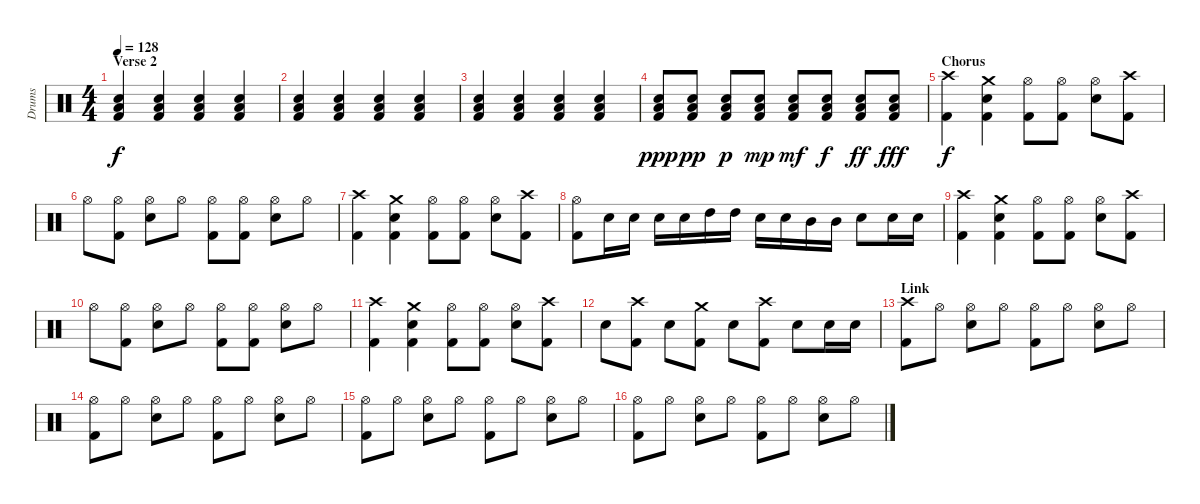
\track ("Drums" "Drums") {instrument percussion}
\staff {score}
\articulation defaults
\ts (4 4)
\section ("" "Verse 2")
\tempo 128
\clef neutral
\ks c
("Electric Snare (hit)" "Low Floor Tom (hit)" "Kick (hit) 2").4{dy f} ("Electric Snare (hit)" "Low Floor Tom (hit)" "Kick (hit) 2").4 ("Electric Snare (hit)" "Low Floor Tom (hit)" "Kick (hit) 2").4 ("Electric Snare (hit)" "Low Floor Tom (hit)" "Kick (hit) 2").4 |
("Electric Snare (hit)" "Low Floor Tom (hit)" "Kick (hit) 2").4 ("Electric Snare (hit)" "Low Floor Tom (hit)" "Kick (hit) 2").4 ("Electric Snare (hit)" "Low Floor Tom (hit)" "Kick (hit) 2").4 ("Electric Snare (hit)" "Low Floor Tom (hit)" "Kick (hit) 2").4 |
("Electric Snare (hit)" "Low Floor Tom (hit)" "Kick (hit) 2").4 ("Electric Snare (hit)" "Low Floor Tom (hit)" "Kick (hit) 2").4 ("Electric Snare (hit)" "Low Floor Tom (hit)" "Kick (hit) 2").4 ("Electric Snare (hit)" "Low Floor Tom (hit)" "Kick (hit) 2").4 |
("Electric Snare (hit)" "Low Floor Tom (hit)" "Kick (hit) 2").8{dy ppp} ("Electric Snare (hit)" "Low Floor Tom (hit)" "Kick (hit) 2").8{dy pp} ("Electric Snare (hit)" "Low Floor Tom (hit)" "Kick (hit) 2").8{dy p} ("Electric Snare (hit)" "Low Floor Tom (hit)" "Kick (hit) 2").8{dy mp} ("Electric Snare (hit)" "Low Floor Tom (hit)" "Kick (hit) 2").8{dy mf} ("Electric Snare (hit)" "Low Floor Tom (hit)" "Kick (hit) 2").8{dy f} ("Electric Snare (hit)" "Low Floor Tom (hit)" "Kick (hit) 2").8{dy ff} ("Electric Snare (hit)" "Low Floor Tom (hit)" "Kick (hit) 2").8{dy fff} |
\section ("" "Chorus")
("Crash high (hit)" "Kick (hit) 2").4{dy f} ("Crash medium (hit)" "Electric Snare (hit)" "Kick (hit) 2").4 ("Hi-Hat (open)" "Kick (hit) 2").8 ("Hi-Hat (open)" "Kick (hit) 2").8 ("Hi-Hat (open)" "Electric Snare (hit)").8 ("Crash high (hit)" "Kick (hit) 2").8 |
"Hi-Hat (open)".8 ("Hi-Hat (open)" "Kick (hit) 2").8 ("Hi-Hat (open)" "Electric Snare (hit)").8 "Hi-Hat (open)".8 ("Hi-Hat (open)" "Kick (hit) 2").8 ("Hi-Hat (open)" "Kick (hit) 2").8 ("Hi-Hat (open)" "Electric Snare (hit)").8 "Hi-Hat (open)".8 |
("Crash high (hit)" "Kick (hit) 2").4 ("Crash medium (hit)" "Electric Snare (hit)" "Kick (hit) 2").4 ("Hi-Hat (open)" "Kick (hit) 2").8 ("Hi-Hat (open)" "Kick (hit) 2").8 ("Hi-Hat (open)" "Electric Snare (hit)").8 ("Crash high (hit)" "Kick (hit) 2").8 |
("Hi-Hat (open)" "Kick (hit) 2").8 "Electric Snare (hit)".16 "Electric Snare (hit)".16 "Electric Snare (hit)".16 "Electric Snare (hit)".16 "High Tom (hit)".16 "High Tom (hit)".16 "Electric Snare (hit)".16 "Electric Snare (hit)".16 "Mid Tom (hit)".16 "Mid Tom (hit)".16 "Electric Snare (hit)".8 "Electric Snare (hit)".16 "Electric Snare (hit)".16 |
("Crash high (hit)" "Kick (hit) 2").4 ("Crash medium (hit)" "Electric Snare (hit)" "Kick (hit) 2").4 ("Hi-Hat (open)" "Kick (hit) 2").8 ("Hi-Hat (open)" "Kick (hit) 2").8 ("Hi-Hat (open)" "Electric Snare (hit)").8 ("Crash high (hit)" "Kick (hit) 2").8 |
"Hi-Hat (open)".8 ("Hi-Hat (open)" "Kick (hit) 2").8 ("Hi-Hat (open)" "Electric Snare (hit)").8 "Hi-Hat (open)".8 ("Hi-Hat (open)" "Kick (hit) 2").8 ("Hi-Hat (open)" "Kick (hit) 2").8 ("Hi-Hat (open)" "Electric Snare (hit)").8 "Hi-Hat (open)".8 |
("Crash high (hit)" "Kick (hit) 2").4 ("Crash medium (hit)" "Electric Snare (hit)" "Kick (hit) 2").4 ("Hi-Hat (open)" "Kick (hit) 2").8 ("Hi-Hat (open)" "Kick (hit) 2").8 ("Hi-Hat (open)" "Electric Snare (hit)").8 ("Crash high (hit)" "Kick (hit) 2").8 |
"Electric Snare (hit)".8 ("Crash high (hit)" "Kick (hit) 2").8 "Electric Snare (hit)".8 ("Crash medium (hit)" "Kick (hit) 2").8 "Electric Snare (hit)".8 ("Crash high (hit)" "Kick (hit) 2").8 "Electric Snare (hit)".8 "Electric Snare (hit)".16 "Electric Snare (hit)".16 |
\section ("" "Link")
("Crash high (hit)" "Kick (hit) 2").8 "Hi-Hat (open)".8 ("Hi-Hat (open)" "Electric Snare (hit)").8 "Hi-Hat (open)".8 ("Hi-Hat (open)" "Kick (hit) 2").8 "Hi-Hat (open)".8 ("Hi-Hat (open)" "Electric Snare (hit)").8 "Hi-Hat (open)".8 |
("Hi-Hat (open)" "Kick (hit) 2").8 "Hi-Hat (open)".8 ("Hi-Hat (open)" "Electric Snare (hit)").8 "Hi-Hat (open)".8 ("Hi-Hat (open)" "Kick (hit) 2").8 "Hi-Hat (open)".8 ("Hi-Hat (open)" "Electric Snare (hit)").8 "Hi-Hat (open)".8 |
("Hi-Hat (open)" "Kick (hit) 2").8 "Hi-Hat (open)".8 ("Hi-Hat (open)" "Electric Snare (hit)").8 "Hi-Hat (open)".8 ("Hi-Hat (open)" "Kick (hit) 2").8 "Hi-Hat (open)".8 ("Hi-Hat (open)" "Electric Snare (hit)").8 "Hi-Hat (open)".8 |
("Hi-Hat (open)" "Kick (hit) 2").8 "Hi-Hat (open)".8 ("Hi-Hat (open)" "Electric Snare (hit)").8 "Hi-Hat (open)".8 ("Hi-Hat (open)" "Kick (hit) 2").8 "Hi-Hat (open)".8 ("Hi-Hat (open)" "Electric Snare (hit)").8 "Hi-Hat (open)".8
